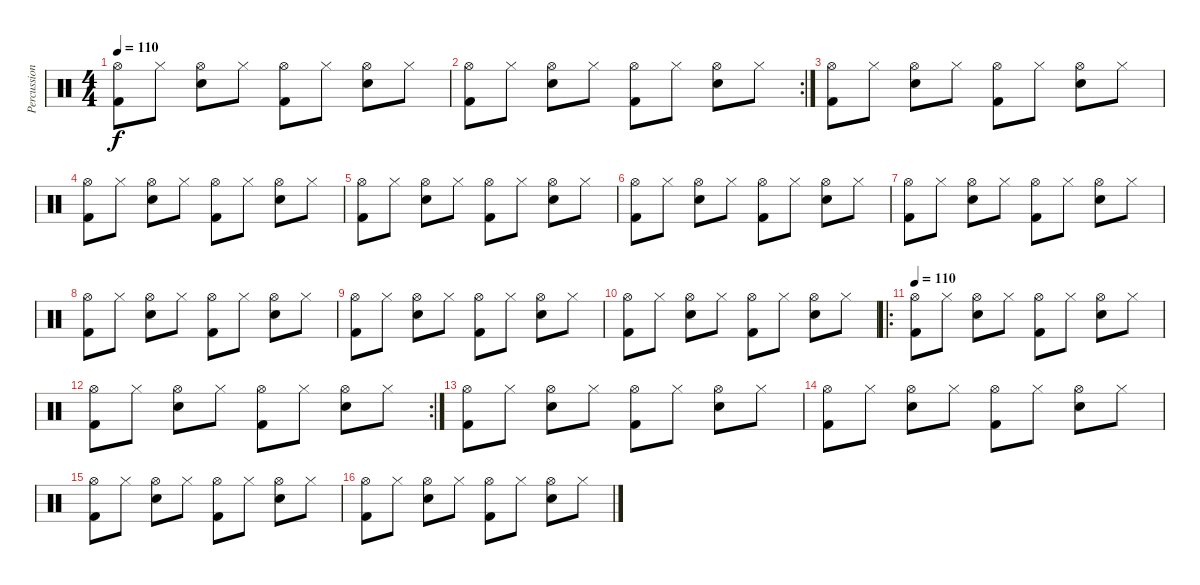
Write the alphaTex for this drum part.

\track ("Percussion" "Percussion") {instrument percussion}
\staff {score}
\articulation defaults
\ts (4 4)
\tempo 110
\clef neutral
\ks c
("Hi-Hat (open)" "Kick (hit) 2").8{dy f} "Hi-Hat (closed)".8 ("Hi-Hat (open)" "Snare (hit) 2").8 "Hi-Hat (closed)".8 ("Hi-Hat (open)" "Kick (hit) 2").8 "Hi-Hat (closed)".8 ("Hi-Hat (open)" "Snare (hit) 2").8 "Hi-Hat (closed)".8 |
\rc 2
("Hi-Hat (open)" "Kick (hit) 2").8 "Hi-Hat (closed)".8 ("Hi-Hat (open)" "Snare (hit) 2").8 "Hi-Hat (closed)".8 ("Hi-Hat (open)" "Kick (hit) 2").8 "Hi-Hat (closed)".8 ("Hi-Hat (open)" "Snare (hit) 2").8 "Hi-Hat (closed)".8 |
("Hi-Hat (open)" "Kick (hit) 2").8 "Hi-Hat (closed)".8 ("Hi-Hat (open)" "Snare (hit) 2").8 "Hi-Hat (closed)".8 ("Hi-Hat (open)" "Kick (hit) 2").8 "Hi-Hat (closed)".8 ("Hi-Hat (open)" "Snare (hit) 2").8 "Hi-Hat (closed)".8 |
("Hi-Hat (open)" "Kick (hit) 2").8 "Hi-Hat (closed)".8 ("Hi-Hat (open)" "Snare (hit) 2").8 "Hi-Hat (closed)".8 ("Hi-Hat (open)" "Kick (hit) 2").8 "Hi-Hat (closed)".8 ("Hi-Hat (open)" "Snare (hit) 2").8 "Hi-Hat (closed)".8 |
("Hi-Hat (open)" "Kick (hit) 2").8 "Hi-Hat (closed)".8 ("Hi-Hat (open)" "Snare (hit) 2").8 "Hi-Hat (closed)".8 ("Hi-Hat (open)" "Kick (hit) 2").8 "Hi-Hat (closed)".8 ("Hi-Hat (open)" "Snare (hit) 2").8 "Hi-Hat (closed)".8 |
("Hi-Hat (open)" "Kick (hit) 2").8 "Hi-Hat (closed)".8 ("Hi-Hat (open)" "Snare (hit) 2").8 "Hi-Hat (closed)".8 ("Hi-Hat (open)" "Kick (hit) 2").8 "Hi-Hat (closed)".8 ("Hi-Hat (open)" "Snare (hit) 2").8 "Hi-Hat (closed)".8 |
("Hi-Hat (open)" "Kick (hit) 2").8 "Hi-Hat (closed)".8 ("Hi-Hat (open)" "Snare (hit) 2").8 "Hi-Hat (closed)".8 ("Hi-Hat (open)" "Kick (hit) 2").8 "Hi-Hat (closed)".8 ("Hi-Hat (open)" "Snare (hit) 2").8 "Hi-Hat (closed)".8 |
("Hi-Hat (open)" "Kick (hit) 2").8 "Hi-Hat (closed)".8 ("Hi-Hat (open)" "Snare (hit) 2").8 "Hi-Hat (closed)".8 ("Hi-Hat (open)" "Kick (hit) 2").8 "Hi-Hat (closed)".8 ("Hi-Hat (open)" "Snare (hit) 2").8 "Hi-Hat (closed)".8 |
("Hi-Hat (open)" "Kick (hit) 2").8 "Hi-Hat (closed)".8 ("Hi-Hat (open)" "Snare (hit) 2").8 "Hi-Hat (closed)".8 ("Hi-Hat (open)" "Kick (hit) 2").8 "Hi-Hat (closed)".8 ("Hi-Hat (open)" "Snare (hit) 2").8 "Hi-Hat (closed)".8 |
("Hi-Hat (open)" "Kick (hit) 2").8 "Hi-Hat (closed)".8 ("Hi-Hat (open)" "Snare (hit) 2").8 "Hi-Hat (closed)".8 ("Hi-Hat (open)" "Kick (hit) 2").8 "Hi-Hat (closed)".8 ("Hi-Hat (open)" "Snare (hit) 2").8 "Hi-Hat (closed)".8 |
\ro
\tempo 110
("Hi-Hat (open)" "Kick (hit) 2").8 "Hi-Hat (closed)".8 ("Hi-Hat (open)" "Snare (hit) 2").8 "Hi-Hat (closed)".8 ("Hi-Hat (open)" "Kick (hit) 2").8 "Hi-Hat (closed)".8 ("Hi-Hat (open)" "Snare (hit) 2").8 "Hi-Hat (closed)".8 |
\rc 2
("Hi-Hat (open)" "Kick (hit) 2").8 "Hi-Hat (closed)".8 ("Hi-Hat (open)" "Snare (hit) 2").8 "Hi-Hat (closed)".8 ("Hi-Hat (open)" "Kick (hit) 2").8 "Hi-Hat (closed)".8 ("Hi-Hat (open)" "Snare (hit) 2").8 "Hi-Hat (closed)".8 |
("Hi-Hat (open)" "Kick (hit) 2").8 "Hi-Hat (closed)".8 ("Hi-Hat (open)" "Snare (hit) 2").8 "Hi-Hat (closed)".8 ("Hi-Hat (open)" "Kick (hit) 2").8 "Hi-Hat (closed)".8 ("Hi-Hat (open)" "Snare (hit) 2").8 "Hi-Hat (closed)".8 |
("Hi-Hat (open)" "Kick (hit) 2").8 "Hi-Hat (closed)".8 ("Hi-Hat (open)" "Snare (hit) 2").8 "Hi-Hat (closed)".8 ("Hi-Hat (open)" "Kick (hit) 2").8 "Hi-Hat (closed)".8 ("Hi-Hat (open)" "Snare (hit) 2").8 "Hi-Hat (closed)".8 |
("Hi-Hat (open)" "Kick (hit) 2").8 "Hi-Hat (closed)".8 ("Hi-Hat (open)" "Snare (hit) 2").8 "Hi-Hat (closed)".8 ("Hi-Hat (open)" "Kick (hit) 2").8 "Hi-Hat (closed)".8 ("Hi-Hat (open)" "Snare (hit) 2").8 "Hi-Hat (closed)".8 |
("Hi-Hat (open)" "Kick (hit) 2").8 "Hi-Hat (closed)".8 ("Hi-Hat (open)" "Snare (hit) 2").8 "Hi-Hat (closed)".8 ("Hi-Hat (open)" "Kick (hit) 2").8 "Hi-Hat (closed)".8 ("Hi-Hat (open)" "Snare (hit) 2").8 "Hi-Hat (closed)".8
